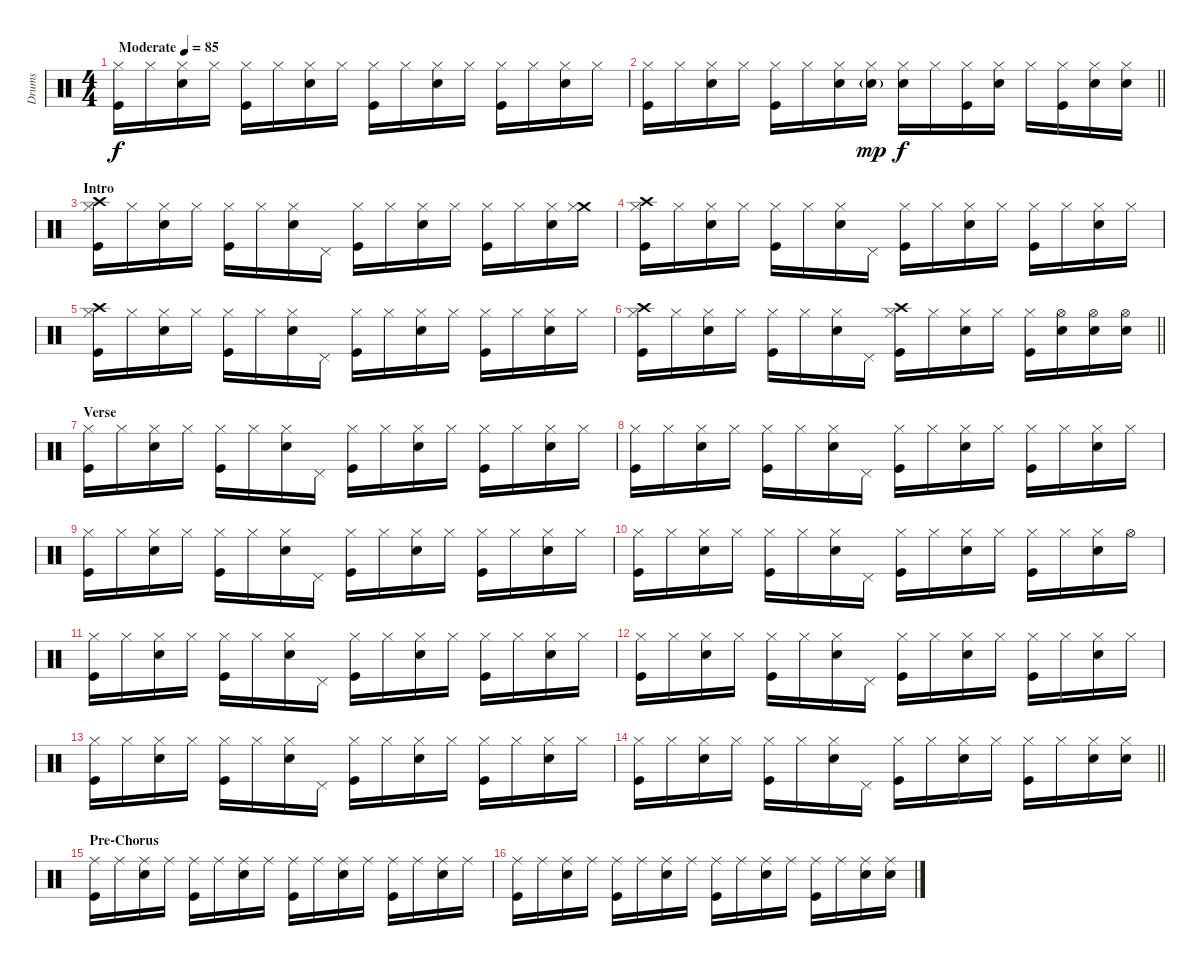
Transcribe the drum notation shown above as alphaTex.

\track ("Drums" "Drums") {instrument percussion}
\staff {score}
\articulation defaults
\ts (4 4)
\tempo (85 "Moderate")
\clef neutral
\ks c
("Hi-Hat (closed)" "Kick (hit)").16{dy f} "Hi-Hat (closed)".16 ("Hi-Hat (closed)" "Electric Snare (hit)").16 "Hi-Hat (closed)".16 ("Hi-Hat (closed)" "Kick (hit)").16 "Hi-Hat (closed)".16 ("Hi-Hat (closed)" "Electric Snare (hit)").16 "Hi-Hat (closed)".16 ("Hi-Hat (closed)" "Kick (hit)").16 "Hi-Hat (closed)".16 ("Hi-Hat (closed)" "Electric Snare (hit)").16 "Hi-Hat (closed)".16 ("Hi-Hat (closed)" "Kick (hit)").16 "Hi-Hat (closed)".16 ("Hi-Hat (closed)" "Electric Snare (hit)").16 "Hi-Hat (closed)".16 |
\barLineRight lightlight
("Hi-Hat (closed)" "Kick (hit)").16 "Hi-Hat (closed)".16 ("Hi-Hat (closed)" "Electric Snare (hit)").16 "Hi-Hat (closed)".16 ("Hi-Hat (closed)" "Kick (hit)").16 "Hi-Hat (closed)".16 ("Hi-Hat (closed)" "Electric Snare (hit)").16 ("Hi-Hat (closed)" "Electric Snare (hit)"{g}).16{dy mp} ("Hi-Hat (closed)" "Electric Snare (hit)").16{dy f} "Hi-Hat (closed)".16 ("Hi-Hat (closed)" "Kick (hit)").16 ("Hi-Hat (closed)" "Electric Snare (hit)").16 "Hi-Hat (closed)".16 ("Hi-Hat (closed)" "Kick (hit)").16 ("Hi-Hat (closed)" "Electric Snare (hit)").16 ("Hi-Hat (closed)" "Electric Snare (hit)").16 |
\section ("" "Intro")
("Crash high (hit)" "Hi-Hat (closed)" "Kick (hit)").16 "Hi-Hat (closed)".16 ("Hi-Hat (closed)" "Electric Snare (hit)").16 "Hi-Hat (closed)".16 ("Hi-Hat (closed)" "Kick (hit)").16 "Hi-Hat (closed)".16 ("Hi-Hat (closed)" "Electric Snare (hit)").16 "Pedal Hi-Hat (hit)".16 ("Hi-Hat (closed)" "Kick (hit)").16 "Hi-Hat (closed)".16 ("Hi-Hat (closed)" "Electric Snare (hit)").16 "Hi-Hat (closed)".16 ("Hi-Hat (closed)" "Kick (hit)").16 "Hi-Hat (closed)".16 ("Hi-Hat (closed)" "Electric Snare (hit)").16 ("Crash medium (hit)" "Hi-Hat (closed)").16 |
("Crash high (hit)" "Hi-Hat (closed)" "Kick (hit)").16 "Hi-Hat (closed)".16 ("Hi-Hat (closed)" "Electric Snare (hit)").16 "Hi-Hat (closed)".16 ("Hi-Hat (closed)" "Kick (hit)").16 "Hi-Hat (closed)".16 ("Hi-Hat (closed)" "Electric Snare (hit)").16 "Pedal Hi-Hat (hit)".16 ("Hi-Hat (closed)" "Kick (hit)").16 "Hi-Hat (closed)".16 ("Hi-Hat (closed)" "Electric Snare (hit)").16 "Hi-Hat (closed)".16 ("Hi-Hat (closed)" "Kick (hit)").16 "Hi-Hat (closed)".16 ("Hi-Hat (closed)" "Electric Snare (hit)").16 "Hi-Hat (closed)".16 |
("Crash high (hit)" "Hi-Hat (closed)" "Kick (hit)").16 "Hi-Hat (closed)".16 ("Hi-Hat (closed)" "Electric Snare (hit)").16 "Hi-Hat (closed)".16 ("Hi-Hat (closed)" "Kick (hit)").16 "Hi-Hat (closed)".16 ("Hi-Hat (closed)" "Electric Snare (hit)").16 "Pedal Hi-Hat (hit)".16 ("Hi-Hat (closed)" "Kick (hit)").16 "Hi-Hat (closed)".16 ("Hi-Hat (closed)" "Electric Snare (hit)").16 "Hi-Hat (closed)".16 ("Hi-Hat (closed)" "Kick (hit)").16 "Hi-Hat (closed)".16 ("Hi-Hat (closed)" "Electric Snare (hit)").16 "Hi-Hat (closed)".16 |
\barLineRight lightlight
("Crash high (hit)" "Hi-Hat (closed)" "Kick (hit)").16 "Hi-Hat (closed)".16 ("Hi-Hat (closed)" "Electric Snare (hit)").16 "Hi-Hat (closed)".16 ("Hi-Hat (closed)" "Kick (hit)").16 "Hi-Hat (closed)".16 ("Hi-Hat (closed)" "Electric Snare (hit)").16 "Pedal Hi-Hat (hit)".16 ("Crash high (hit)" "Hi-Hat (closed)" "Kick (hit)").16 "Hi-Hat (closed)".16 ("Hi-Hat (closed)" "Electric Snare (hit)").16 "Hi-Hat (closed)".16 ("Hi-Hat (closed)" "Kick (hit)").16 ("Hi-Hat (open)" "Electric Snare (hit)").16 ("Hi-Hat (open)" "Electric Snare (hit)").16 ("Hi-Hat (open)" "Electric Snare (hit)").16 |
\section ("" "Verse")
("Hi-Hat (closed)" "Kick (hit)").16 "Hi-Hat (closed)".16 ("Hi-Hat (closed)" "Electric Snare (hit)").16 "Hi-Hat (closed)".16 ("Hi-Hat (closed)" "Kick (hit)").16 "Hi-Hat (closed)".16 ("Hi-Hat (closed)" "Electric Snare (hit)").16 "Pedal Hi-Hat (hit)".16 ("Hi-Hat (closed)" "Kick (hit)").16 "Hi-Hat (closed)".16 ("Hi-Hat (closed)" "Electric Snare (hit)").16 "Hi-Hat (closed)".16 ("Hi-Hat (closed)" "Kick (hit)").16 "Hi-Hat (closed)".16 ("Hi-Hat (closed)" "Electric Snare (hit)").16 "Hi-Hat (closed)".16 |
("Hi-Hat (closed)" "Kick (hit)").16 "Hi-Hat (closed)".16 ("Hi-Hat (closed)" "Electric Snare (hit)").16 "Hi-Hat (closed)".16 ("Hi-Hat (closed)" "Kick (hit)").16 "Hi-Hat (closed)".16 ("Hi-Hat (closed)" "Electric Snare (hit)").16 "Pedal Hi-Hat (hit)".16 ("Hi-Hat (closed)" "Kick (hit)").16 "Hi-Hat (closed)".16 ("Hi-Hat (closed)" "Electric Snare (hit)").16 "Hi-Hat (closed)".16 ("Hi-Hat (closed)" "Kick (hit)").16 "Hi-Hat (closed)".16 ("Hi-Hat (closed)" "Electric Snare (hit)").16 "Hi-Hat (closed)".16 |
("Hi-Hat (closed)" "Kick (hit)").16 "Hi-Hat (closed)".16 ("Hi-Hat (closed)" "Electric Snare (hit)").16 "Hi-Hat (closed)".16 ("Hi-Hat (closed)" "Kick (hit)").16 "Hi-Hat (closed)".16 ("Hi-Hat (closed)" "Electric Snare (hit)").16 "Pedal Hi-Hat (hit)".16 ("Hi-Hat (closed)" "Kick (hit)").16 "Hi-Hat (closed)".16 ("Hi-Hat (closed)" "Electric Snare (hit)").16 "Hi-Hat (closed)".16 ("Hi-Hat (closed)" "Kick (hit)").16 "Hi-Hat (closed)".16 ("Hi-Hat (closed)" "Electric Snare (hit)").16 "Hi-Hat (closed)".16 |
("Hi-Hat (closed)" "Kick (hit)").16 "Hi-Hat (closed)".16 ("Hi-Hat (closed)" "Electric Snare (hit)").16 "Hi-Hat (closed)".16 ("Hi-Hat (closed)" "Kick (hit)").16 "Hi-Hat (closed)".16 ("Hi-Hat (closed)" "Electric Snare (hit)").16 "Pedal Hi-Hat (hit)".16 ("Hi-Hat (closed)" "Kick (hit)").16 "Hi-Hat (closed)".16 ("Hi-Hat (closed)" "Electric Snare (hit)").16 "Hi-Hat (closed)".16 ("Hi-Hat (closed)" "Kick (hit)").16 "Hi-Hat (closed)".16 ("Hi-Hat (closed)" "Electric Snare (hit)").16 "Hi-Hat (open)".16 |
("Hi-Hat (closed)" "Kick (hit)").16 "Hi-Hat (closed)".16 ("Hi-Hat (closed)" "Electric Snare (hit)").16 "Hi-Hat (closed)".16 ("Hi-Hat (closed)" "Kick (hit)").16 "Hi-Hat (closed)".16 ("Hi-Hat (closed)" "Electric Snare (hit)").16 "Pedal Hi-Hat (hit)".16 ("Hi-Hat (closed)" "Kick (hit)").16 "Hi-Hat (closed)".16 ("Hi-Hat (closed)" "Electric Snare (hit)").16 "Hi-Hat (closed)".16 ("Hi-Hat (closed)" "Kick (hit)").16 "Hi-Hat (closed)".16 ("Hi-Hat (closed)" "Electric Snare (hit)").16 "Hi-Hat (closed)".16 |
("Hi-Hat (closed)" "Kick (hit)").16 "Hi-Hat (closed)".16 ("Hi-Hat (closed)" "Electric Snare (hit)").16 "Hi-Hat (closed)".16 ("Hi-Hat (closed)" "Kick (hit)").16 "Hi-Hat (closed)".16 ("Hi-Hat (closed)" "Electric Snare (hit)").16 "Pedal Hi-Hat (hit)".16 ("Hi-Hat (closed)" "Kick (hit)").16 "Hi-Hat (closed)".16 ("Hi-Hat (closed)" "Electric Snare (hit)").16 "Hi-Hat (closed)".16 ("Hi-Hat (closed)" "Kick (hit)").16 "Hi-Hat (closed)".16 ("Hi-Hat (closed)" "Electric Snare (hit)").16 "Hi-Hat (closed)".16 |
("Hi-Hat (closed)" "Kick (hit)").16 "Hi-Hat (closed)".16 ("Hi-Hat (closed)" "Electric Snare (hit)").16 "Hi-Hat (closed)".16 ("Hi-Hat (closed)" "Kick (hit)").16 "Hi-Hat (closed)".16 ("Hi-Hat (closed)" "Electric Snare (hit)").16 "Pedal Hi-Hat (hit)".16 ("Hi-Hat (closed)" "Kick (hit)").16 "Hi-Hat (closed)".16 ("Hi-Hat (closed)" "Electric Snare (hit)").16 "Hi-Hat (closed)".16 ("Hi-Hat (closed)" "Kick (hit)").16 "Hi-Hat (closed)".16 ("Hi-Hat (closed)" "Electric Snare (hit)").16 "Hi-Hat (closed)".16 |
\barLineRight lightlight
("Hi-Hat (closed)" "Kick (hit)").16 "Hi-Hat (closed)".16 ("Hi-Hat (closed)" "Electric Snare (hit)").16 "Hi-Hat (closed)".16 ("Hi-Hat (closed)" "Kick (hit)").16 "Hi-Hat (closed)".16 ("Hi-Hat (closed)" "Electric Snare (hit)").16 "Pedal Hi-Hat (hit)".16 ("Hi-Hat (closed)" "Kick (hit)").16 "Hi-Hat (closed)".16 ("Hi-Hat (closed)" "Electric Snare (hit)").16 "Hi-Hat (closed)".16 ("Hi-Hat (closed)" "Kick (hit)").16 "Hi-Hat (closed)".16 ("Hi-Hat (closed)" "Electric Snare (hit)").16 ("Hi-Hat (closed)" "Electric Snare (hit)").16 |
\section ("" "Pre-Chorus")
("Ride (middle)" "Kick (hit)").16 "Ride (middle)".16 ("Ride (middle)" "Electric Snare (hit)").16 "Ride (middle)".16 ("Ride (middle)" "Kick (hit)").16 "Ride (middle)".16 ("Ride (middle)" "Electric Snare (hit)").16 "Ride (middle)".16 ("Ride (middle)" "Kick (hit)").16 "Ride (middle)".16 ("Ride (middle)" "Electric Snare (hit)").16 "Ride (middle)".16 ("Ride (middle)" "Kick (hit)").16 "Ride (middle)".16 ("Ride (middle)" "Electric Snare (hit)").16 "Ride (middle)".16 |
("Ride (middle)" "Kick (hit)").16 "Ride (middle)".16 ("Ride (middle)" "Electric Snare (hit)").16 "Ride (middle)".16 ("Ride (middle)" "Kick (hit)").16 "Ride (middle)".16 ("Ride (middle)" "Electric Snare (hit)").16 "Ride (middle)".16 ("Ride (middle)" "Kick (hit)").16 "Ride (middle)".16 ("Ride (middle)" "Electric Snare (hit)").16 "Ride (middle)".16 ("Ride (middle)" "Kick (hit)").16 "Ride (middle)".16 ("Ride (middle)" "Electric Snare (hit)").16 ("Ride (middle)" "Electric Snare (hit)").16
